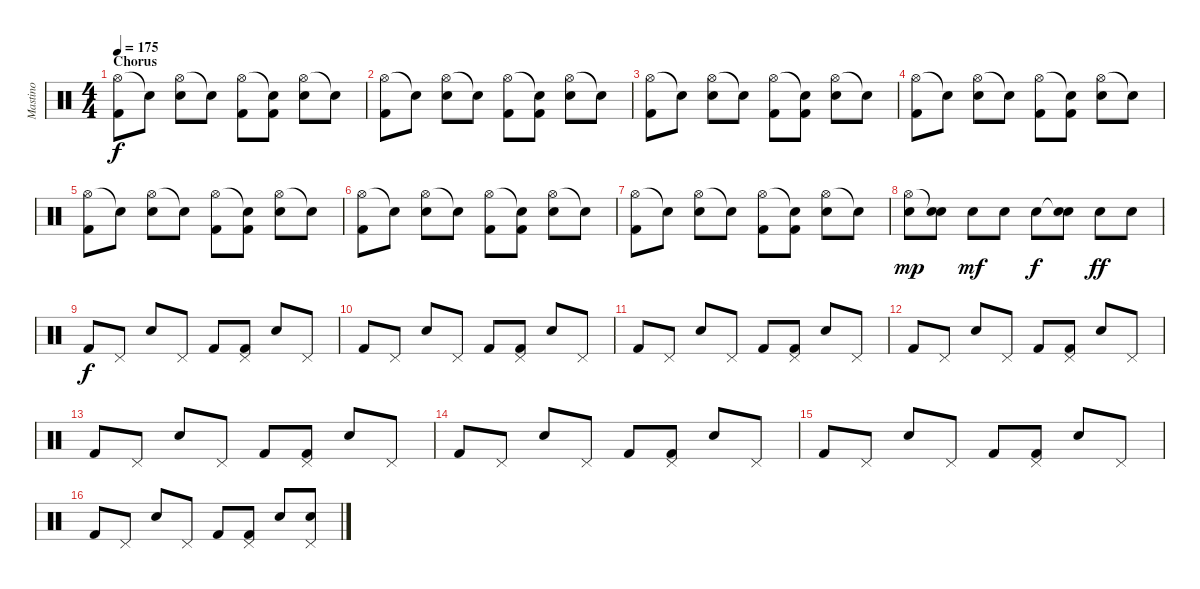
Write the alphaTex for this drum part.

\track ("Mastino" "Mastino") {instrument percussion}
\staff {score}
\articulation defaults
\ts (4 4)
\section ("" "Chorus")
\tempo 175
\clef neutral
\ks c
("Hi-Hat (open)" "Kick (hit) 2").8{dy f} "Snare (hit)"{t}.8 ("Hi-Hat (open)" "Electric Snare (hit)").8 "Snare (hit)"{t}.8 ("Hi-Hat (open)" "Kick (hit) 2").8 ("Snare (hit)"{t} "Kick (hit) 2").8 ("Hi-Hat (open)" "Electric Snare (hit)").8 "Snare (hit)"{t}.8 |
("Hi-Hat (open)" "Kick (hit) 2").8 "Snare (hit)"{t}.8 ("Hi-Hat (open)" "Electric Snare (hit)").8 "Snare (hit)"{t}.8 ("Hi-Hat (open)" "Kick (hit) 2").8 ("Snare (hit)"{t} "Kick (hit) 2").8 ("Hi-Hat (open)" "Electric Snare (hit)").8 "Snare (hit)"{t}.8 |
("Hi-Hat (open)" "Kick (hit) 2").8 "Snare (hit)"{t}.8 ("Hi-Hat (open)" "Electric Snare (hit)").8 "Snare (hit)"{t}.8 ("Hi-Hat (open)" "Kick (hit) 2").8 ("Snare (hit)"{t} "Kick (hit) 2").8 ("Hi-Hat (open)" "Electric Snare (hit)").8 "Snare (hit)"{t}.8 |
("Hi-Hat (open)" "Kick (hit) 2").8 "Snare (hit)"{t}.8 ("Hi-Hat (open)" "Electric Snare (hit)").8 "Snare (hit)"{t}.8 ("Hi-Hat (open)" "Kick (hit) 2").8 ("Snare (hit)"{t} "Kick (hit) 2").8 ("Hi-Hat (open)" "Electric Snare (hit)").8 "Snare (hit)"{t}.8 |
("Hi-Hat (open)" "Kick (hit) 2").8 "Snare (hit)"{t}.8 ("Hi-Hat (open)" "Electric Snare (hit)").8 "Snare (hit)"{t}.8 ("Hi-Hat (open)" "Kick (hit) 2").8 ("Snare (hit)"{t} "Kick (hit) 2").8 ("Hi-Hat (open)" "Electric Snare (hit)").8 "Snare (hit)"{t}.8 |
("Hi-Hat (open)" "Kick (hit) 2").8 "Snare (hit)"{t}.8 ("Hi-Hat (open)" "Electric Snare (hit)").8 "Snare (hit)"{t}.8 ("Hi-Hat (open)" "Kick (hit) 2").8 ("Snare (hit)"{t} "Kick (hit) 2").8 ("Hi-Hat (open)" "Electric Snare (hit)").8 "Snare (hit)"{t}.8 |
("Hi-Hat (open)" "Kick (hit) 2").8 "Snare (hit)"{t}.8 ("Hi-Hat (open)" "Electric Snare (hit)").8 "Snare (hit)"{t}.8 ("Hi-Hat (open)" "Kick (hit) 2").8 ("Snare (hit)"{t} "Kick (hit) 2").8 ("Hi-Hat (open)" "Electric Snare (hit)").8 "Snare (hit)"{t}.8 |
("Hi-Hat (open)" "Electric Snare (hit)").8{dy mp} ("Snare (hit)"{t} "Electric Snare (hit)").8 "Electric Snare (hit)".8{dy mf} "Electric Snare (hit)".8 "Electric Snare (hit)".8{dy f} ("Snare (hit)"{t} "Electric Snare (hit)").8 "Electric Snare (hit)".8{dy ff} "Electric Snare (hit)".8 |
"Kick (hit) 2".8{dy f} "Pedal Hi-Hat (hit)".8 "Electric Snare (hit)".8 "Pedal Hi-Hat (hit)".8 "Kick (hit) 2".8 ("Pedal Hi-Hat (hit)" "Kick (hit) 2").8 "Electric Snare (hit)".8 "Pedal Hi-Hat (hit)".8 |
"Kick (hit) 2".8 "Pedal Hi-Hat (hit)".8 "Electric Snare (hit)".8 "Pedal Hi-Hat (hit)".8 "Kick (hit) 2".8 ("Pedal Hi-Hat (hit)" "Kick (hit) 2").8 "Electric Snare (hit)".8 "Pedal Hi-Hat (hit)".8 |
"Kick (hit) 2".8 "Pedal Hi-Hat (hit)".8 "Electric Snare (hit)".8 "Pedal Hi-Hat (hit)".8 "Kick (hit) 2".8 ("Pedal Hi-Hat (hit)" "Kick (hit) 2").8 "Electric Snare (hit)".8 "Pedal Hi-Hat (hit)".8 |
"Kick (hit) 2".8 "Pedal Hi-Hat (hit)".8 "Electric Snare (hit)".8 "Pedal Hi-Hat (hit)".8 "Kick (hit) 2".8 ("Pedal Hi-Hat (hit)" "Kick (hit) 2").8 "Electric Snare (hit)".8 "Pedal Hi-Hat (hit)".8 |
"Kick (hit) 2".8 "Pedal Hi-Hat (hit)".8 "Electric Snare (hit)".8 "Pedal Hi-Hat (hit)".8 "Kick (hit) 2".8 ("Pedal Hi-Hat (hit)" "Kick (hit) 2").8 "Electric Snare (hit)".8 "Pedal Hi-Hat (hit)".8 |
"Kick (hit) 2".8 "Pedal Hi-Hat (hit)".8 "Electric Snare (hit)".8 "Pedal Hi-Hat (hit)".8 "Kick (hit) 2".8 ("Pedal Hi-Hat (hit)" "Kick (hit) 2").8 "Electric Snare (hit)".8 "Pedal Hi-Hat (hit)".8 |
"Kick (hit) 2".8 "Pedal Hi-Hat (hit)".8 "Electric Snare (hit)".8 "Pedal Hi-Hat (hit)".8 "Kick (hit) 2".8 ("Pedal Hi-Hat (hit)" "Kick (hit) 2").8 "Electric Snare (hit)".8 "Pedal Hi-Hat (hit)".8 |
"Kick (hit) 2".8 "Pedal Hi-Hat (hit)".8 "Electric Snare (hit)".8 "Pedal Hi-Hat (hit)".8 "Kick (hit) 2".8 ("Pedal Hi-Hat (hit)" "Kick (hit) 2").8 "Electric Snare (hit)".8 ("Pedal Hi-Hat (hit)" "Electric Snare (hit)").8
